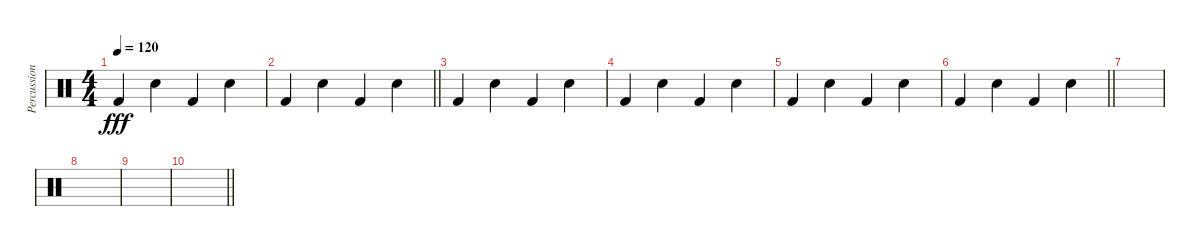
\track ("Percussion" "Percussion") {instrument percussion}
\staff {score}
\articulation defaults
\ts (4 4)
\tempo 120
\clef neutral
\ks c "Kick (hit) 2".4{dy fff} "Electric Snare (hit)".4 "Kick (hit) 2".4 "Electric Snare (hit)".4
|
\barLineRight lightlight "Kick (hit) 2".4 "Electric Snare (hit)".4 "Kick (hit) 2".4 "Electric Snare (hit)".4
|
"Kick (hit) 2".4 "Electric Snare (hit)".4 "Kick (hit) 2".4 "Electric Snare (hit)".4 |
"Kick (hit) 2".4 "Electric Snare (hit)".4 "Kick (hit) 2".4 "Electric Snare (hit)".4 |
"Kick (hit) 2".4 "Electric Snare (hit)".4 "Kick (hit) 2".4 "Electric Snare (hit)".4 |
\barLineRight lightlight "Kick (hit) 2".4 "Electric Snare (hit)".4 "Kick (hit) 2".4 "Electric Snare (hit)".4
|
|
|
|
\barLineRight lightlight
